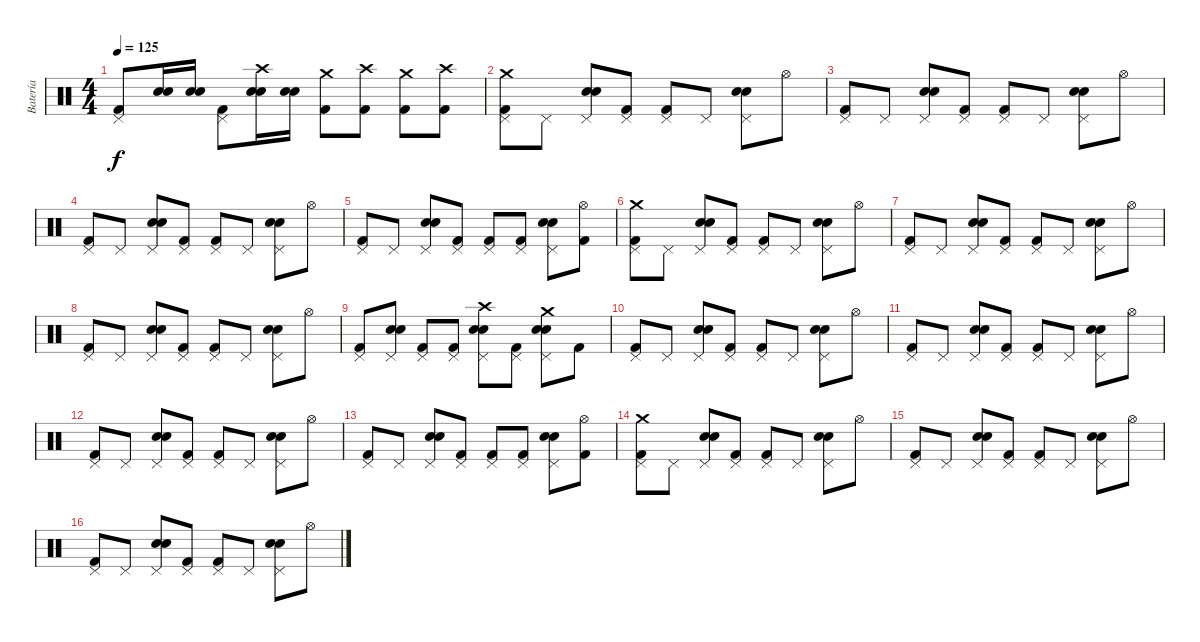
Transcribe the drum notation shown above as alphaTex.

\track ("Batería" "Batería") {instrument percussion}
\staff {score}
\articulation defaults
\ts (4 4)
\tempo 125
\clef neutral
\ks c
("Kick (hit) 2" "Pedal Hi-Hat (hit)").8{dy f} ("Electric Snare (hit)" "Snare (hit) 2").16 ("Electric Snare (hit)" "Snare (hit) 2").16 ("Kick (hit) 2" "Pedal Hi-Hat (hit)").8 ("Electric Snare (hit)" "Snare (hit) 2" "Crash high (hit)").16 ("Electric Snare (hit)" "Snare (hit) 2").16 ("Kick (hit) 2" "Crash medium (hit)").8 ("Kick (hit) 2" "Crash high (hit)").8 ("Kick (hit) 2" "Crash medium (hit)").8 ("Kick (hit) 2" "Crash high (hit)").8 |
("Kick (hit) 2" "Pedal Hi-Hat (hit)" "Crash medium (hit)").8 "Pedal Hi-Hat (hit)".8 ("Electric Snare (hit)" "Pedal Hi-Hat (hit)" "Snare (hit) 2").8 ("Kick (hit) 2" "Pedal Hi-Hat (hit)").8 ("Kick (hit) 2" "Pedal Hi-Hat (hit)").8 "Pedal Hi-Hat (hit)".8 ("Electric Snare (hit)" "Pedal Hi-Hat (hit)" "Snare (hit) 2").8 "Hi-Hat (open)".8 |
("Kick (hit) 2" "Pedal Hi-Hat (hit)").8 "Pedal Hi-Hat (hit)".8 ("Electric Snare (hit)" "Pedal Hi-Hat (hit)" "Snare (hit) 2").8 ("Kick (hit) 2" "Pedal Hi-Hat (hit)").8 ("Kick (hit) 2" "Pedal Hi-Hat (hit)").8 "Pedal Hi-Hat (hit)".8 ("Electric Snare (hit)" "Pedal Hi-Hat (hit)" "Snare (hit) 2").8 "Hi-Hat (open)".8 |
("Kick (hit) 2" "Pedal Hi-Hat (hit)").8 "Pedal Hi-Hat (hit)".8 ("Electric Snare (hit)" "Pedal Hi-Hat (hit)" "Snare (hit) 2").8 ("Kick (hit) 2" "Pedal Hi-Hat (hit)").8 ("Kick (hit) 2" "Pedal Hi-Hat (hit)").8 "Pedal Hi-Hat (hit)".8 ("Electric Snare (hit)" "Pedal Hi-Hat (hit)" "Snare (hit) 2").8 "Hi-Hat (open)".8 |
("Kick (hit) 2" "Pedal Hi-Hat (hit)").8 "Pedal Hi-Hat (hit)".8 ("Electric Snare (hit)" "Pedal Hi-Hat (hit)" "Snare (hit) 2").8 ("Kick (hit) 2" "Pedal Hi-Hat (hit)").8 ("Kick (hit) 2" "Pedal Hi-Hat (hit)").8 ("Kick (hit) 2" "Pedal Hi-Hat (hit)").8 ("Electric Snare (hit)" "Pedal Hi-Hat (hit)" "Snare (hit) 2").8 ("Kick (hit) 2" "Hi-Hat (open)").8 |
("Kick (hit) 2" "Pedal Hi-Hat (hit)" "Crash medium (hit)").8 "Pedal Hi-Hat (hit)".8 ("Electric Snare (hit)" "Pedal Hi-Hat (hit)" "Snare (hit) 2").8 ("Kick (hit) 2" "Pedal Hi-Hat (hit)").8 ("Kick (hit) 2" "Pedal Hi-Hat (hit)").8 "Pedal Hi-Hat (hit)".8 ("Electric Snare (hit)" "Pedal Hi-Hat (hit)" "Snare (hit) 2").8 "Hi-Hat (open)".8 |
("Kick (hit) 2" "Pedal Hi-Hat (hit)").8 "Pedal Hi-Hat (hit)".8 ("Electric Snare (hit)" "Pedal Hi-Hat (hit)" "Snare (hit) 2").8 ("Kick (hit) 2" "Pedal Hi-Hat (hit)").8 ("Kick (hit) 2" "Pedal Hi-Hat (hit)").8 "Pedal Hi-Hat (hit)".8 ("Electric Snare (hit)" "Pedal Hi-Hat (hit)" "Snare (hit) 2").8 "Hi-Hat (open)".8 |
("Kick (hit) 2" "Pedal Hi-Hat (hit)").8 "Pedal Hi-Hat (hit)".8 ("Electric Snare (hit)" "Pedal Hi-Hat (hit)" "Snare (hit) 2").8 ("Kick (hit) 2" "Pedal Hi-Hat (hit)").8 ("Kick (hit) 2" "Pedal Hi-Hat (hit)").8 "Pedal Hi-Hat (hit)".8 ("Electric Snare (hit)" "Pedal Hi-Hat (hit)" "Snare (hit) 2").8 "Hi-Hat (open)".8 |
("Kick (hit) 2" "Pedal Hi-Hat (hit)").8 ("Electric Snare (hit)" "Pedal Hi-Hat (hit)" "Snare (hit) 2").8 ("Kick (hit) 2" "Pedal Hi-Hat (hit)").8 ("Kick (hit) 2" "Pedal Hi-Hat (hit)").8 ("Electric Snare (hit)" "Pedal Hi-Hat (hit)" "Snare (hit) 2" "Crash high (hit)").8 ("Kick (hit) 2" "Pedal Hi-Hat (hit)").8 ("Electric Snare (hit)" "Pedal Hi-Hat (hit)" "Snare (hit) 2" "Crash medium (hit)").8 "Kick (hit) 2".8 |
("Kick (hit) 2" "Pedal Hi-Hat (hit)").8 "Pedal Hi-Hat (hit)".8 ("Electric Snare (hit)" "Pedal Hi-Hat (hit)" "Snare (hit) 2").8 ("Kick (hit) 2" "Pedal Hi-Hat (hit)").8 ("Kick (hit) 2" "Pedal Hi-Hat (hit)").8 "Pedal Hi-Hat (hit)".8 ("Electric Snare (hit)" "Pedal Hi-Hat (hit)" "Snare (hit) 2").8 "Hi-Hat (open)".8 |
("Kick (hit) 2" "Pedal Hi-Hat (hit)").8 "Pedal Hi-Hat (hit)".8 ("Electric Snare (hit)" "Pedal Hi-Hat (hit)" "Snare (hit) 2").8 ("Kick (hit) 2" "Pedal Hi-Hat (hit)").8 ("Kick (hit) 2" "Pedal Hi-Hat (hit)").8 "Pedal Hi-Hat (hit)".8 ("Electric Snare (hit)" "Pedal Hi-Hat (hit)" "Snare (hit) 2").8 "Hi-Hat (open)".8 |
("Kick (hit) 2" "Pedal Hi-Hat (hit)").8 "Pedal Hi-Hat (hit)".8 ("Electric Snare (hit)" "Pedal Hi-Hat (hit)" "Snare (hit) 2").8 ("Kick (hit) 2" "Pedal Hi-Hat (hit)").8 ("Kick (hit) 2" "Pedal Hi-Hat (hit)").8 "Pedal Hi-Hat (hit)".8 ("Electric Snare (hit)" "Pedal Hi-Hat (hit)" "Snare (hit) 2").8 "Hi-Hat (open)".8 |
("Kick (hit) 2" "Pedal Hi-Hat (hit)").8 "Pedal Hi-Hat (hit)".8 ("Electric Snare (hit)" "Pedal Hi-Hat (hit)" "Snare (hit) 2").8 ("Kick (hit) 2" "Pedal Hi-Hat (hit)").8 ("Kick (hit) 2" "Pedal Hi-Hat (hit)").8 ("Kick (hit) 2" "Pedal Hi-Hat (hit)").8 ("Electric Snare (hit)" "Pedal Hi-Hat (hit)" "Snare (hit) 2").8 ("Kick (hit) 2" "Hi-Hat (open)").8 |
("Kick (hit) 2" "Pedal Hi-Hat (hit)" "Crash medium (hit)").8 "Pedal Hi-Hat (hit)".8 ("Electric Snare (hit)" "Pedal Hi-Hat (hit)" "Snare (hit) 2").8 ("Kick (hit) 2" "Pedal Hi-Hat (hit)").8 ("Kick (hit) 2" "Pedal Hi-Hat (hit)").8 "Pedal Hi-Hat (hit)".8 ("Electric Snare (hit)" "Pedal Hi-Hat (hit)" "Snare (hit) 2").8 "Hi-Hat (open)".8 |
("Kick (hit) 2" "Pedal Hi-Hat (hit)").8 "Pedal Hi-Hat (hit)".8 ("Electric Snare (hit)" "Pedal Hi-Hat (hit)" "Snare (hit) 2").8 ("Kick (hit) 2" "Pedal Hi-Hat (hit)").8 ("Kick (hit) 2" "Pedal Hi-Hat (hit)").8 "Pedal Hi-Hat (hit)".8 ("Electric Snare (hit)" "Pedal Hi-Hat (hit)" "Snare (hit) 2").8 "Hi-Hat (open)".8 |
("Kick (hit) 2" "Pedal Hi-Hat (hit)").8 "Pedal Hi-Hat (hit)".8 ("Electric Snare (hit)" "Pedal Hi-Hat (hit)" "Snare (hit) 2").8 ("Kick (hit) 2" "Pedal Hi-Hat (hit)").8 ("Kick (hit) 2" "Pedal Hi-Hat (hit)").8 "Pedal Hi-Hat (hit)".8 ("Electric Snare (hit)" "Pedal Hi-Hat (hit)" "Snare (hit) 2").8 "Hi-Hat (open)".8
